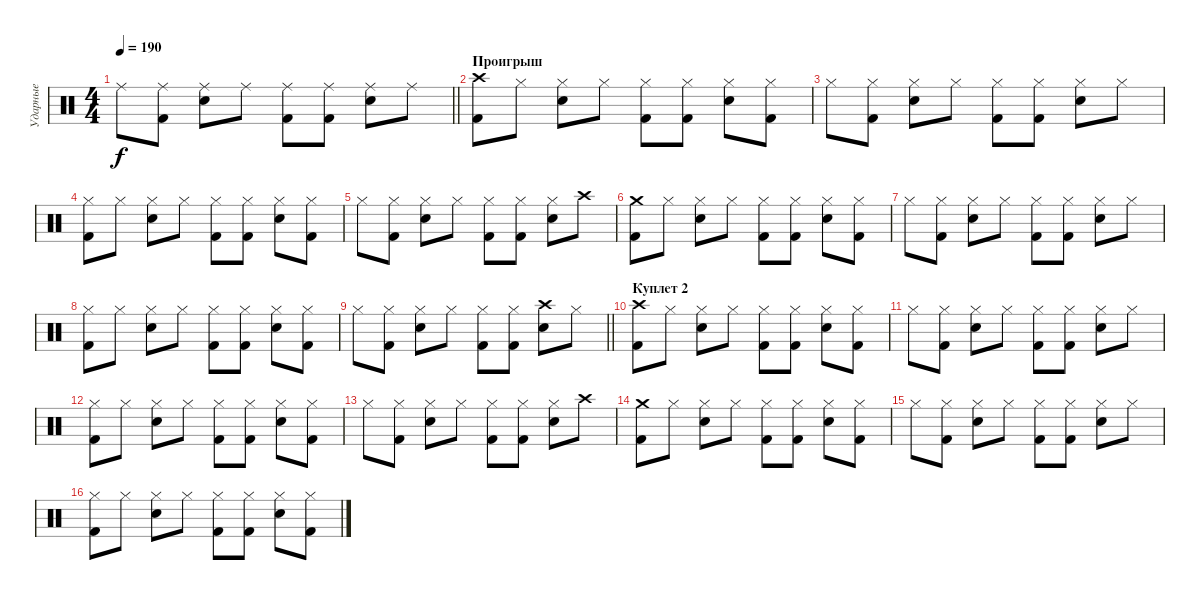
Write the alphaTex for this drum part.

\track ("Ударные" "Ударные") {instrument percussion}
\staff {score}
\articulation defaults
\ts (4 4)
\tempo 190
\clef neutral
\barLineRight lightlight
\ks c "Ride (middle)".8{dy f}
("Ride (middle)" "Kick (hit) 2").8 ("Ride (middle)" "Electric Snare (hit)").8 "Ride (middle)".8 ("Ride (middle)" "Kick (hit) 2").8 ("Ride (middle)" "Kick (hit) 2").8 ("Ride (middle)" "Electric Snare (hit)").8 "Ride (middle)".8 |
\section ("" "Проигрыш")
("Crash high (hit)" "Kick (hit) 2").8 "Hi-Hat (closed)".8 ("Hi-Hat (closed)" "Electric Snare (hit)").8 "Hi-Hat (closed)".8 ("Hi-Hat (closed)" "Kick (hit) 2").8 ("Hi-Hat (closed)" "Kick (hit) 2").8 ("Hi-Hat (closed)" "Electric Snare (hit)").8 ("Hi-Hat (closed)" "Kick (hit) 2").8 |
"Hi-Hat (closed)".8 ("Hi-Hat (closed)" "Kick (hit) 2").8 ("Hi-Hat (closed)" "Electric Snare (hit)").8 "Hi-Hat (closed)".8 ("Hi-Hat (closed)" "Kick (hit) 2").8 ("Hi-Hat (closed)" "Kick (hit) 2").8 ("Hi-Hat (closed)" "Electric Snare (hit)").8 "Hi-Hat (closed)".8 |
("Hi-Hat (closed)" "Kick (hit) 2").8 "Hi-Hat (closed)".8 ("Hi-Hat (closed)" "Electric Snare (hit)").8 "Hi-Hat (closed)".8 ("Hi-Hat (closed)" "Kick (hit) 2").8 ("Hi-Hat (closed)" "Kick (hit) 2").8 ("Hi-Hat (closed)" "Electric Snare (hit)").8 ("Hi-Hat (closed)" "Kick (hit) 2").8 |
"Hi-Hat (closed)".8 ("Hi-Hat (closed)" "Kick (hit) 2").8 ("Hi-Hat (closed)" "Electric Snare (hit)").8 "Hi-Hat (closed)".8 ("Hi-Hat (closed)" "Kick (hit) 2").8 ("Hi-Hat (closed)" "Kick (hit) 2").8 ("Hi-Hat (closed)" "Electric Snare (hit)").8 "Crash high (hit)".8 |
("Crash medium (hit)" "Kick (hit) 2").8 "Hi-Hat (closed)".8 ("Hi-Hat (closed)" "Electric Snare (hit)").8 "Hi-Hat (closed)".8 ("Hi-Hat (closed)" "Kick (hit) 2").8 ("Hi-Hat (closed)" "Kick (hit) 2").8 ("Hi-Hat (closed)" "Electric Snare (hit)").8 ("Hi-Hat (closed)" "Kick (hit) 2").8 |
"Hi-Hat (closed)".8 ("Hi-Hat (closed)" "Kick (hit) 2").8 ("Hi-Hat (closed)" "Electric Snare (hit)").8 "Hi-Hat (closed)".8 ("Hi-Hat (closed)" "Kick (hit) 2").8 ("Hi-Hat (closed)" "Kick (hit) 2").8 ("Hi-Hat (closed)" "Electric Snare (hit)").8 "Hi-Hat (closed)".8 |
("Hi-Hat (closed)" "Kick (hit) 2").8 "Hi-Hat (closed)".8 ("Hi-Hat (closed)" "Electric Snare (hit)").8 "Hi-Hat (closed)".8 ("Hi-Hat (closed)" "Kick (hit) 2").8 ("Hi-Hat (closed)" "Kick (hit) 2").8 ("Hi-Hat (closed)" "Electric Snare (hit)").8 ("Hi-Hat (closed)" "Kick (hit) 2").8 |
\barLineRight lightlight "Hi-Hat (closed)".8
("Hi-Hat (closed)" "Kick (hit) 2").8 ("Hi-Hat (closed)" "Electric Snare (hit)").8 "Hi-Hat (closed)".8 ("Hi-Hat (closed)" "Kick (hit) 2").8 ("Hi-Hat (closed)" "Kick (hit) 2").8 ("Crash high (hit)" "Electric Snare (hit)").8 "Hi-Hat (closed)".8 |
\section ("" "Куплет 2")
("Crash high (hit)" "Kick (hit) 2").8 "Hi-Hat (closed)".8 ("Hi-Hat (closed)" "Electric Snare (hit)").8 "Hi-Hat (closed)".8 ("Hi-Hat (closed)" "Kick (hit) 2").8 ("Hi-Hat (closed)" "Kick (hit) 2").8 ("Hi-Hat (closed)" "Electric Snare (hit)").8 ("Hi-Hat (closed)" "Kick (hit) 2").8 |
"Hi-Hat (closed)".8 ("Hi-Hat (closed)" "Kick (hit) 2").8 ("Hi-Hat (closed)" "Electric Snare (hit)").8 "Hi-Hat (closed)".8 ("Hi-Hat (closed)" "Kick (hit) 2").8 ("Hi-Hat (closed)" "Kick (hit) 2").8 ("Hi-Hat (closed)" "Electric Snare (hit)").8 "Hi-Hat (closed)".8 |
("Hi-Hat (closed)" "Kick (hit) 2").8 "Hi-Hat (closed)".8 ("Hi-Hat (closed)" "Electric Snare (hit)").8 "Hi-Hat (closed)".8 ("Hi-Hat (closed)" "Kick (hit) 2").8 ("Hi-Hat (closed)" "Kick (hit) 2").8 ("Hi-Hat (closed)" "Electric Snare (hit)").8 ("Hi-Hat (closed)" "Kick (hit) 2").8 |
"Hi-Hat (closed)".8 ("Hi-Hat (closed)" "Kick (hit) 2").8 ("Hi-Hat (closed)" "Electric Snare (hit)").8 "Hi-Hat (closed)".8 ("Hi-Hat (closed)" "Kick (hit) 2").8 ("Hi-Hat (closed)" "Kick (hit) 2").8 ("Hi-Hat (closed)" "Electric Snare (hit)").8 "Crash high (hit)".8 |
("Crash medium (hit)" "Kick (hit) 2").8 "Hi-Hat (closed)".8 ("Hi-Hat (closed)" "Electric Snare (hit)").8 "Hi-Hat (closed)".8 ("Hi-Hat (closed)" "Kick (hit) 2").8 ("Hi-Hat (closed)" "Kick (hit) 2").8 ("Hi-Hat (closed)" "Electric Snare (hit)").8 ("Hi-Hat (closed)" "Kick (hit) 2").8 |
"Hi-Hat (closed)".8 ("Hi-Hat (closed)" "Kick (hit) 2").8 ("Hi-Hat (closed)" "Electric Snare (hit)").8 "Hi-Hat (closed)".8 ("Hi-Hat (closed)" "Kick (hit) 2").8 ("Hi-Hat (closed)" "Kick (hit) 2").8 ("Hi-Hat (closed)" "Electric Snare (hit)").8 "Hi-Hat (closed)".8 |
("Hi-Hat (closed)" "Kick (hit) 2").8 "Hi-Hat (closed)".8 ("Hi-Hat (closed)" "Electric Snare (hit)").8 "Hi-Hat (closed)".8 ("Hi-Hat (closed)" "Kick (hit) 2").8 ("Hi-Hat (closed)" "Kick (hit) 2").8 ("Hi-Hat (closed)" "Electric Snare (hit)").8 ("Hi-Hat (closed)" "Kick (hit) 2").8
